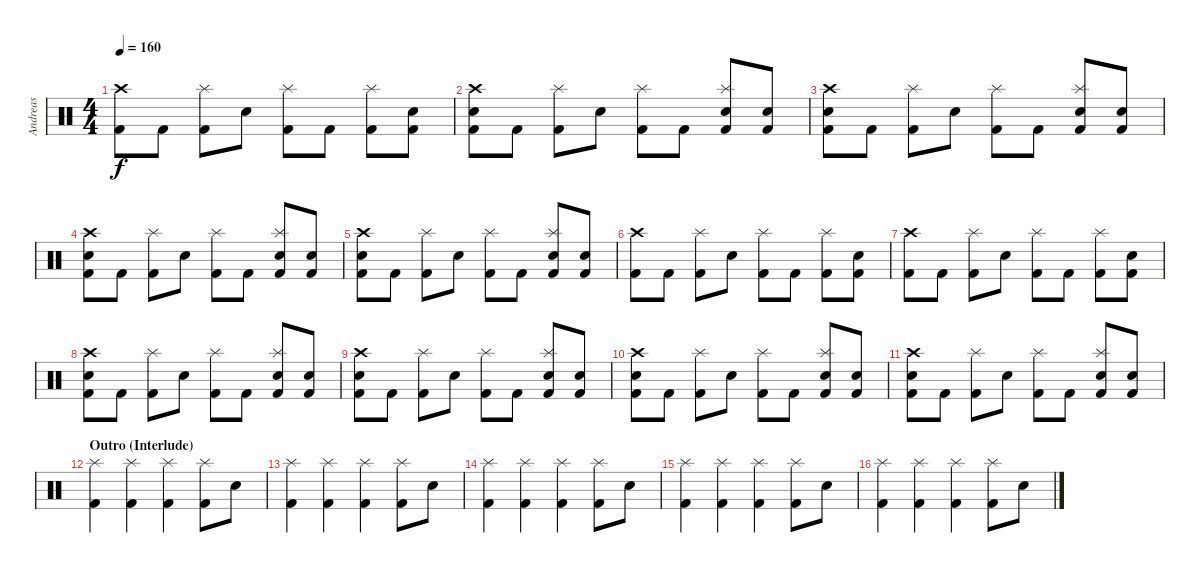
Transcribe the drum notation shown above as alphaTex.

\track ("Andreas" "Andreas") {instrument percussion}
\staff {score}
\articulation defaults
\ts (4 4)
\tempo 160
\clef neutral
\ks c
("Crash high (hit)" "Kick (hit) 2").8{dy f} "Kick (hit) 2".8 ("Splash (hit)" "Kick (hit) 2").8 "Snare (hit) 2".8 ("Splash (hit)" "Kick (hit) 2").8 "Kick (hit) 2".8 ("Splash (hit)" "Kick (hit) 2").8 ("Snare (hit) 2" "Kick (hit) 2").8 |
("Crash high (hit)" "Snare (hit) 2" "Kick (hit) 2").8 "Kick (hit) 2".8 ("Splash (hit)" "Kick (hit) 2").8 "Snare (hit) 2".8 ("Splash (hit)" "Kick (hit) 2").8 "Kick (hit) 2".8 ("Splash (hit)" "Snare (hit) 2" "Kick (hit) 2").8 ("Snare (hit) 2" "Kick (hit) 2").8 |
("Crash high (hit)" "Snare (hit) 2" "Kick (hit) 2").8 "Kick (hit) 2".8 ("Splash (hit)" "Kick (hit) 2").8 "Snare (hit) 2".8 ("Splash (hit)" "Kick (hit) 2").8 "Kick (hit) 2".8 ("Splash (hit)" "Snare (hit) 2" "Kick (hit) 2").8 ("Snare (hit) 2" "Kick (hit) 2").8 |
("Crash high (hit)" "Snare (hit) 2" "Kick (hit) 2").8 "Kick (hit) 2".8 ("Splash (hit)" "Kick (hit) 2").8 "Snare (hit) 2".8 ("Splash (hit)" "Kick (hit) 2").8 "Kick (hit) 2".8 ("Splash (hit)" "Snare (hit) 2" "Kick (hit) 2").8 ("Snare (hit) 2" "Kick (hit) 2").8 |
("Crash high (hit)" "Snare (hit) 2" "Kick (hit) 2").8 "Kick (hit) 2".8 ("Splash (hit)" "Kick (hit) 2").8 "Snare (hit) 2".8 ("Splash (hit)" "Kick (hit) 2").8 "Kick (hit) 2".8 ("Splash (hit)" "Snare (hit) 2" "Kick (hit) 2").8 ("Snare (hit) 2" "Kick (hit) 2").8 |
("Crash high (hit)" "Kick (hit) 2").8 "Kick (hit) 2".8 ("Splash (hit)" "Kick (hit) 2").8 "Snare (hit) 2".8 ("Splash (hit)" "Kick (hit) 2").8 "Kick (hit) 2".8 ("Splash (hit)" "Kick (hit) 2").8 ("Snare (hit) 2" "Kick (hit) 2").8 |
("Crash high (hit)" "Kick (hit) 2").8 "Kick (hit) 2".8 ("Splash (hit)" "Kick (hit) 2").8 "Snare (hit) 2".8 ("Splash (hit)" "Kick (hit) 2").8 "Kick (hit) 2".8 ("Splash (hit)" "Kick (hit) 2").8 ("Snare (hit) 2" "Kick (hit) 2").8 |
("Crash high (hit)" "Snare (hit) 2" "Kick (hit) 2").8 "Kick (hit) 2".8 ("Splash (hit)" "Kick (hit) 2").8 "Snare (hit) 2".8 ("Splash (hit)" "Kick (hit) 2").8 "Kick (hit) 2".8 ("Splash (hit)" "Snare (hit) 2" "Kick (hit) 2").8 ("Snare (hit) 2" "Kick (hit) 2").8 |
("Crash high (hit)" "Snare (hit) 2" "Kick (hit) 2").8 "Kick (hit) 2".8 ("Splash (hit)" "Kick (hit) 2").8 "Snare (hit) 2".8 ("Splash (hit)" "Kick (hit) 2").8 "Kick (hit) 2".8 ("Splash (hit)" "Snare (hit) 2" "Kick (hit) 2").8 ("Snare (hit) 2" "Kick (hit) 2").8 |
("Crash high (hit)" "Snare (hit) 2" "Kick (hit) 2").8 "Kick (hit) 2".8 ("Splash (hit)" "Kick (hit) 2").8 "Snare (hit) 2".8 ("Splash (hit)" "Kick (hit) 2").8 "Kick (hit) 2".8 ("Splash (hit)" "Snare (hit) 2" "Kick (hit) 2").8 ("Snare (hit) 2" "Kick (hit) 2").8 |
("Crash high (hit)" "Snare (hit) 2" "Kick (hit) 2").8 "Kick (hit) 2".8 ("Splash (hit)" "Kick (hit) 2").8 "Snare (hit) 2".8 ("Splash (hit)" "Kick (hit) 2").8 "Kick (hit) 2".8 ("Splash (hit)" "Snare (hit) 2" "Kick (hit) 2").8 ("Snare (hit) 2" "Kick (hit) 2").8 |
\section ("" "Outro (Interlude)")
("Splash (hit)" "Kick (hit) 2").4 ("Splash (hit)" "Kick (hit) 2").4 ("Splash (hit)" "Kick (hit) 2").4 ("Splash (hit)" "Kick (hit) 2").8 "Snare (hit) 2".8 |
("Splash (hit)" "Kick (hit) 2").4 ("Splash (hit)" "Kick (hit) 2").4 ("Splash (hit)" "Kick (hit) 2").4 ("Splash (hit)" "Kick (hit) 2").8 "Snare (hit) 2".8 |
("Splash (hit)" "Kick (hit) 2").4 ("Splash (hit)" "Kick (hit) 2").4 ("Splash (hit)" "Kick (hit) 2").4 ("Splash (hit)" "Kick (hit) 2").8 "Snare (hit) 2".8 |
("Splash (hit)" "Kick (hit) 2").4 ("Splash (hit)" "Kick (hit) 2").4 ("Splash (hit)" "Kick (hit) 2").4 ("Splash (hit)" "Kick (hit) 2").8 "Snare (hit) 2".8 |
("Splash (hit)" "Kick (hit) 2").4 ("Splash (hit)" "Kick (hit) 2").4 ("Splash (hit)" "Kick (hit) 2").4 ("Splash (hit)" "Kick (hit) 2").8 "Snare (hit) 2".8
